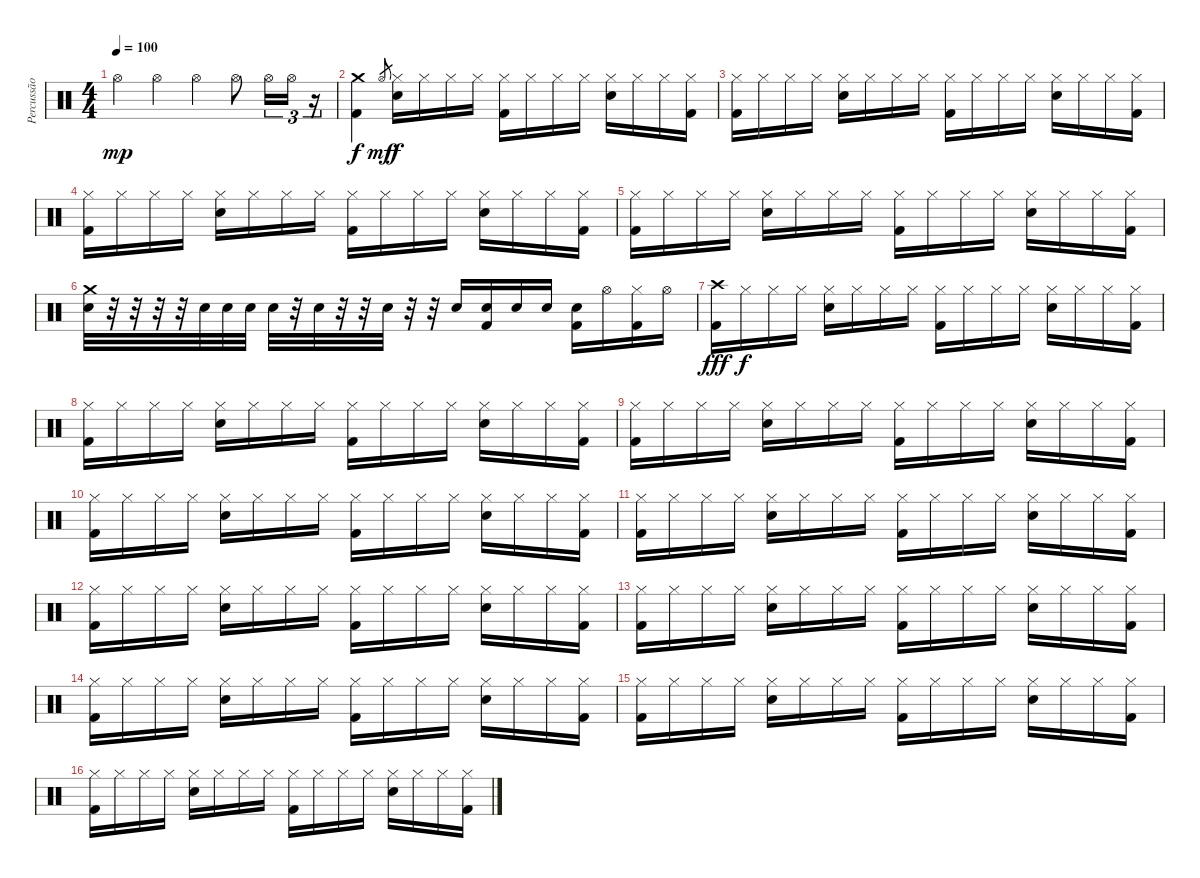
\track ("Percussão" "Percussão") {instrument percussion}
\staff {score}
\articulation defaults
\ts (4 4)
\tempo 100
\clef neutral
\ks c "Hi-Hat (open)".4{dy mp} "Hi-Hat (open)".4 "Hi-Hat (open)".4 "Hi-Hat (open)".8 "Hi-Hat (open)".16{tu (3 2)} "Hi-Hat (open)".16{tu (3 2)}
r.16{tu (3 2)} |
("Kick (hit) 2" "Crash medium (hit)").4{dy f} "Hi-Hat (open)".8{gr dy mf} ("Hi-Hat (closed)" "Snare (hit) 2").16{dy f} "Hi-Hat (closed)".16 "Hi-Hat (closed)".16 "Hi-Hat (closed)".16 ("Hi-Hat (closed)" "Kick (hit) 2").16 "Hi-Hat (closed)".16 "Hi-Hat (closed)".16 "Hi-Hat (closed)".16 ("Hi-Hat (closed)" "Snare (hit) 2").16 "Hi-Hat (closed)".16 "Hi-Hat (closed)".16 ("Hi-Hat (closed)" "Kick (hit) 2").16 |
("Hi-Hat (closed)" "Kick (hit) 2").16 "Hi-Hat (closed)".16 "Hi-Hat (closed)".16 "Hi-Hat (closed)".16 ("Hi-Hat (closed)" "Snare (hit) 2").16 "Hi-Hat (closed)".16 "Hi-Hat (closed)".16 "Hi-Hat (closed)".16 ("Hi-Hat (closed)" "Kick (hit) 2").16 "Hi-Hat (closed)".16 "Hi-Hat (closed)".16 "Hi-Hat (closed)".16 ("Hi-Hat (closed)" "Snare (hit) 2").16 "Hi-Hat (closed)".16 "Hi-Hat (closed)".16 ("Hi-Hat (closed)" "Kick (hit) 2").16 |
("Hi-Hat (closed)" "Kick (hit) 2").16 "Hi-Hat (closed)".16 "Hi-Hat (closed)".16 "Hi-Hat (closed)".16 ("Hi-Hat (closed)" "Snare (hit) 2").16 "Hi-Hat (closed)".16 "Hi-Hat (closed)".16 "Hi-Hat (closed)".16 ("Hi-Hat (closed)" "Kick (hit) 2").16 "Hi-Hat (closed)".16 "Hi-Hat (closed)".16 "Hi-Hat (closed)".16 ("Hi-Hat (closed)" "Snare (hit) 2").16 "Hi-Hat (closed)".16 "Hi-Hat (closed)".16 ("Hi-Hat (closed)" "Kick (hit) 2").16 |
("Hi-Hat (closed)" "Kick (hit) 2").16 "Hi-Hat (closed)".16 "Hi-Hat (closed)".16 "Hi-Hat (closed)".16 ("Hi-Hat (closed)" "Snare (hit) 2").16 "Hi-Hat (closed)".16 "Hi-Hat (closed)".16 "Hi-Hat (closed)".16 ("Hi-Hat (closed)" "Kick (hit) 2").16 "Hi-Hat (closed)".16 "Hi-Hat (closed)".16 "Hi-Hat (closed)".16 ("Hi-Hat (closed)" "Snare (hit) 2").16 "Hi-Hat (closed)".16 "Hi-Hat (closed)".16 ("Hi-Hat (closed)" "Kick (hit) 2").16 |
("Snare (hit) 2" "Crash medium (hit)").32 r.32 r.32 r.32 r.32 "Snare (hit) 2".32 "Snare (hit) 2".32 "Snare (hit) 2".32 "Snare (hit) 2".32 r.32 "Snare (hit) 2".32 r.32 r.32 "Snare (hit) 2".32 r.32 r.32 "Snare (hit) 2".16 ("Kick (hit) 2" "Snare (hit) 2").16 "Snare (hit) 2".16 "Snare (hit) 2".16 ("Kick (hit) 2" "Snare (hit) 2").16 "Hi-Hat (open)".16 ("Kick (hit) 2" "Hi-Hat (closed)").16 "Hi-Hat (open)".16 |
("Kick (hit) 2" "Crash high (hit)").16{dy fff} "Hi-Hat (closed)".16{dy f} "Hi-Hat (closed)".16 "Hi-Hat (closed)".16 ("Hi-Hat (closed)" "Snare (hit) 2").16 "Hi-Hat (closed)".16 "Hi-Hat (closed)".16 "Hi-Hat (closed)".16 ("Hi-Hat (closed)" "Kick (hit) 2").16 "Hi-Hat (closed)".16 "Hi-Hat (closed)".16 "Hi-Hat (closed)".16 ("Hi-Hat (closed)" "Snare (hit) 2").16 "Hi-Hat (closed)".16 "Hi-Hat (closed)".16 ("Hi-Hat (closed)" "Kick (hit) 2").16 |
("Hi-Hat (closed)" "Kick (hit) 2").16 "Hi-Hat (closed)".16 "Hi-Hat (closed)".16 "Hi-Hat (closed)".16 ("Hi-Hat (closed)" "Snare (hit) 2").16 "Hi-Hat (closed)".16 "Hi-Hat (closed)".16 "Hi-Hat (closed)".16 ("Hi-Hat (closed)" "Kick (hit) 2").16 "Hi-Hat (closed)".16 "Hi-Hat (closed)".16 "Hi-Hat (closed)".16 ("Hi-Hat (closed)" "Snare (hit) 2").16 "Hi-Hat (closed)".16 "Hi-Hat (closed)".16 ("Hi-Hat (closed)" "Kick (hit) 2").16 |
("Hi-Hat (closed)" "Kick (hit) 2").16 "Hi-Hat (closed)".16 "Hi-Hat (closed)".16 "Hi-Hat (closed)".16 ("Hi-Hat (closed)" "Snare (hit) 2").16 "Hi-Hat (closed)".16 "Hi-Hat (closed)".16 "Hi-Hat (closed)".16 ("Hi-Hat (closed)" "Kick (hit) 2").16 "Hi-Hat (closed)".16 "Hi-Hat (closed)".16 "Hi-Hat (closed)".16 ("Hi-Hat (closed)" "Snare (hit) 2").16 "Hi-Hat (closed)".16 "Hi-Hat (closed)".16 ("Hi-Hat (closed)" "Kick (hit) 2").16 |
("Hi-Hat (closed)" "Kick (hit) 2").16 "Hi-Hat (closed)".16 "Hi-Hat (closed)".16 "Hi-Hat (closed)".16 ("Hi-Hat (closed)" "Snare (hit) 2").16 "Hi-Hat (closed)".16 "Hi-Hat (closed)".16 "Hi-Hat (closed)".16 ("Hi-Hat (closed)" "Kick (hit) 2").16 "Hi-Hat (closed)".16 "Hi-Hat (closed)".16 "Hi-Hat (closed)".16 ("Hi-Hat (closed)" "Snare (hit) 2").16 "Hi-Hat (closed)".16 "Hi-Hat (closed)".16 ("Hi-Hat (closed)" "Kick (hit) 2").16 |
("Hi-Hat (closed)" "Kick (hit) 2").16 "Hi-Hat (closed)".16 "Hi-Hat (closed)".16 "Hi-Hat (closed)".16 ("Hi-Hat (closed)" "Snare (hit) 2").16 "Hi-Hat (closed)".16 "Hi-Hat (closed)".16 "Hi-Hat (closed)".16 ("Hi-Hat (closed)" "Kick (hit) 2").16 "Hi-Hat (closed)".16 "Hi-Hat (closed)".16 "Hi-Hat (closed)".16 ("Hi-Hat (closed)" "Snare (hit) 2").16 "Hi-Hat (closed)".16 "Hi-Hat (closed)".16 ("Hi-Hat (closed)" "Kick (hit) 2").16 |
("Hi-Hat (closed)" "Kick (hit) 2").16 "Hi-Hat (closed)".16 "Hi-Hat (closed)".16 "Hi-Hat (closed)".16 ("Hi-Hat (closed)" "Snare (hit) 2").16 "Hi-Hat (closed)".16 "Hi-Hat (closed)".16 "Hi-Hat (closed)".16 ("Hi-Hat (closed)" "Kick (hit) 2").16 "Hi-Hat (closed)".16 "Hi-Hat (closed)".16 "Hi-Hat (closed)".16 ("Hi-Hat (closed)" "Snare (hit) 2").16 "Hi-Hat (closed)".16 "Hi-Hat (closed)".16 ("Hi-Hat (closed)" "Kick (hit) 2").16 |
("Hi-Hat (closed)" "Kick (hit) 2").16 "Hi-Hat (closed)".16 "Hi-Hat (closed)".16 "Hi-Hat (closed)".16 ("Hi-Hat (closed)" "Snare (hit) 2").16 "Hi-Hat (closed)".16 "Hi-Hat (closed)".16 "Hi-Hat (closed)".16 ("Hi-Hat (closed)" "Kick (hit) 2").16 "Hi-Hat (closed)".16 "Hi-Hat (closed)".16 "Hi-Hat (closed)".16 ("Hi-Hat (closed)" "Snare (hit) 2").16 "Hi-Hat (closed)".16 "Hi-Hat (closed)".16 ("Hi-Hat (closed)" "Kick (hit) 2").16 |
("Hi-Hat (closed)" "Kick (hit) 2").16 "Hi-Hat (closed)".16 "Hi-Hat (closed)".16 "Hi-Hat (closed)".16 ("Hi-Hat (closed)" "Snare (hit) 2").16 "Hi-Hat (closed)".16 "Hi-Hat (closed)".16 "Hi-Hat (closed)".16 ("Hi-Hat (closed)" "Kick (hit) 2").16 "Hi-Hat (closed)".16 "Hi-Hat (closed)".16 "Hi-Hat (closed)".16 ("Hi-Hat (closed)" "Snare (hit) 2").16 "Hi-Hat (closed)".16 "Hi-Hat (closed)".16 ("Hi-Hat (closed)" "Kick (hit) 2").16 |
("Hi-Hat (closed)" "Kick (hit) 2").16 "Hi-Hat (closed)".16 "Hi-Hat (closed)".16 "Hi-Hat (closed)".16 ("Hi-Hat (closed)" "Snare (hit) 2").16 "Hi-Hat (closed)".16 "Hi-Hat (closed)".16 "Hi-Hat (closed)".16 ("Hi-Hat (closed)" "Kick (hit) 2").16 "Hi-Hat (closed)".16 "Hi-Hat (closed)".16 "Hi-Hat (closed)".16 ("Hi-Hat (closed)" "Snare (hit) 2").16 "Hi-Hat (closed)".16 "Hi-Hat (closed)".16 ("Hi-Hat (closed)" "Kick (hit) 2").16 |
("Hi-Hat (closed)" "Kick (hit) 2").16 "Hi-Hat (closed)".16 "Hi-Hat (closed)".16 "Hi-Hat (closed)".16 ("Hi-Hat (closed)" "Snare (hit) 2").16 "Hi-Hat (closed)".16 "Hi-Hat (closed)".16 "Hi-Hat (closed)".16 ("Hi-Hat (closed)" "Kick (hit) 2").16 "Hi-Hat (closed)".16 "Hi-Hat (closed)".16 "Hi-Hat (closed)".16 ("Hi-Hat (closed)" "Snare (hit) 2").16 "Hi-Hat (closed)".16 "Hi-Hat (closed)".16 ("Hi-Hat (closed)" "Kick (hit) 2").16
